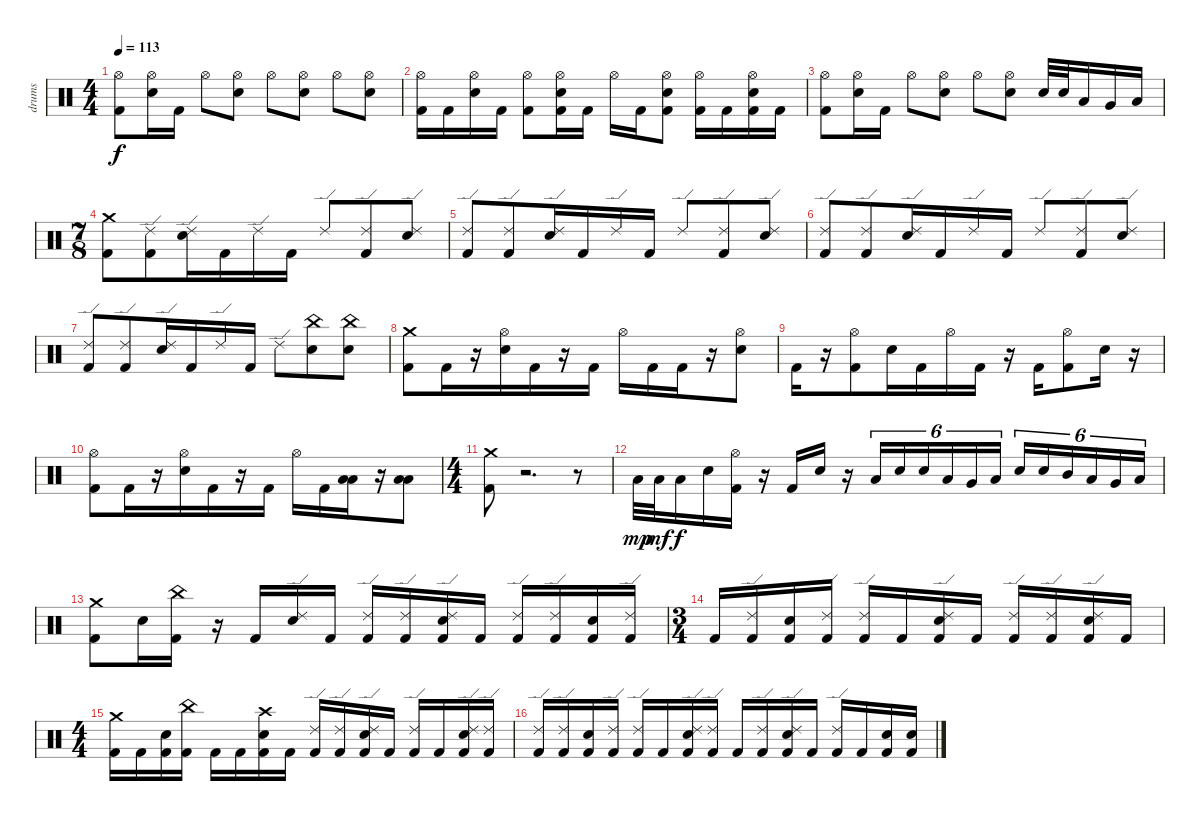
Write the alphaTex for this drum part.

\track ("drums" "drums") {instrument percussion}
\staff {score}
\articulation defaults
\ts (4 4)
\tempo 113
\clef neutral
\ks c
("Hi-Hat (open)" "Kick (hit) 2").8{dy f} ("Hi-Hat (open)" "Electric Snare (hit)").16 "Kick (hit) 2".16 "Hi-Hat (open)".8 ("Hi-Hat (open)" "Electric Snare (hit)").8 "Hi-Hat (open)".8 ("Hi-Hat (open)" "Electric Snare (hit)").8 "Hi-Hat (open)".8 ("Hi-Hat (open)" "Electric Snare (hit)").8 |
("Hi-Hat (open)" "Kick (hit) 2").16 "Kick (hit) 2".16 ("Hi-Hat (open)" "Electric Snare (hit)").16 "Kick (hit) 2".16 ("Hi-Hat (open)" "Kick (hit) 2").8 ("Hi-Hat (open)" "Electric Snare (hit)" "Kick (hit) 2").16 "Kick (hit) 2".16 "Hi-Hat (open)".16 "Kick (hit) 2".16 ("Hi-Hat (open)" "Electric Snare (hit)" "Kick (hit) 2").8 ("Hi-Hat (open)" "Kick (hit) 2").16 "Kick (hit) 2".16 ("Hi-Hat (open)" "Electric Snare (hit)" "Kick (hit) 2").16 "Kick (hit) 2".16 |
("Hi-Hat (open)" "Kick (hit) 2").8 ("Hi-Hat (open)" "Electric Snare (hit)").16 "Kick (hit) 2".16 "Hi-Hat (open)".8 ("Hi-Hat (open)" "Electric Snare (hit)").8 "Hi-Hat (open)".8 ("Hi-Hat (open)" "Electric Snare (hit)").8 "Electric Snare (hit)".32 "Electric Snare (hit)".32 "Low Tom (hit)".16 "Very Low Tom (hit)".16 "Low Floor Tom (hit)".16 |
\ts (7 8)
("Kick (hit) 2" "Crash medium (hit)").8 ("Kick (hit) 2" "Ride (edge) 2").8 ("Electric Snare (hit)" "Ride (edge) 2").16 "Kick (hit) 2".16 "Ride (edge) 2".16 "Kick (hit) 2".16 "Ride (edge) 2".8 ("Kick (hit) 2" "Ride (edge) 2").8 ("Electric Snare (hit)" "Ride (edge) 2").8 |
("Ride (edge) 2" "Kick (hit) 2").8 ("Kick (hit) 2" "Ride (edge) 2").8 ("Electric Snare (hit)" "Ride (edge) 2").16 "Kick (hit) 2".16 "Ride (edge) 2".16 "Kick (hit) 2".16 "Ride (edge) 2".8 ("Kick (hit) 2" "Ride (edge) 2").8 ("Electric Snare (hit)" "Ride (edge) 2").8 |
("Ride (edge) 2" "Kick (hit) 2").8 ("Kick (hit) 2" "Ride (edge) 2").8 ("Electric Snare (hit)" "Ride (edge) 2").16 "Kick (hit) 2".16 "Ride (edge) 2".16 "Kick (hit) 2".16 "Ride (edge) 2".8 ("Kick (hit) 2" "Ride (edge) 2").8 ("Electric Snare (hit)" "Ride (edge) 2").8 |
("Ride (edge) 2" "Kick (hit) 2").8 ("Kick (hit) 2" "Ride (edge) 2").8 ("Electric Snare (hit)" "Ride (edge) 2").16 "Kick (hit) 2".16 "Ride (edge) 2".16 "Kick (hit) 2".16 "Ride (edge) 2".8 ("China (hit)" "Electric Snare (hit)").8 ("China (hit)" "Electric Snare (hit)").8 |
("Crash medium (hit)" "Kick (hit) 2").8 "Kick (hit) 2".16 r.16 ("Hi-Hat (open)" "Electric Snare (hit)").16 "Kick (hit) 2".16 r.16 "Kick (hit) 2".16 "Hi-Hat (open)".16 "Kick (hit) 2".16 "Kick (hit) 2".16 r.16 ("Hi-Hat (open)" "Electric Snare (hit)").8 |
"Kick (hit) 2".16 r.16 ("Hi-Hat (open)" "Kick (hit) 2").8 "Electric Snare (hit)".16 "Kick (hit) 2".16 "Hi-Hat (open)".16 "Kick (hit) 2".16 r.16 "Kick (hit) 2".16 ("Hi-Hat (open)" "Kick (hit) 2").8 "Electric Snare (hit)".16 r.16 |
("Hi-Hat (open)" "Kick (hit) 2").8 "Kick (hit) 2".16 r.16 ("Hi-Hat (open)" "Electric Snare (hit)").16 "Kick (hit) 2".16 r.16 "Kick (hit) 2".16 "Hi-Hat (open)".16 "Kick (hit) 2".16 ("Low Tom (hit)" "Low Floor Tom (hit)").16 r.16 ("Low Floor Tom (hit)" "Low Tom (hit)").8 |
\ts (4 4)
("Crash medium (hit)" "Kick (hit) 2").8 r.2{d} r.8 |
"Low Tom (hit)".32{dy mp} "Low Tom (hit)".32{dy mf} "Low Floor Tom (hit)".16{dy f} "Electric Snare (hit)".16 ("Hi-Hat (open)" "Kick (hit) 2").16 r.16 "Kick (hit) 2".16 "Electric Snare (hit)".16 r.16 "Low Floor Tom (hit)".16{tu (6 4)} "Electric Snare (hit)".16{tu (6 4)} "Electric Snare (hit)".16{tu (6 4)} "Low Tom (hit)".16{tu (6 4)} "Very Low Tom (hit)".16{tu (6 4)} "Low Floor Tom (hit)".16{tu (6 4)} "Electric Snare (hit)".16{tu (6 4)} "Electric Snare (hit)".16{tu (6 4)} "Mid Tom (hit)".16{tu (6 4)} "Low Tom (hit)".16{tu (6 4)} "Very Low Tom (hit)".16{tu (6 4)} "Low Floor Tom (hit)".16{tu (6 4)} |
("Crash medium (hit)" "Kick (hit) 2").8 "Electric Snare (hit)".16 ("China (hit)" "Kick (hit) 2").16 r.16 "Kick (hit) 2".16 ("Ride (edge) 2" "Electric Snare (hit)").16 "Kick (hit) 2".16 ("Ride (edge) 2" "Kick (hit) 2").16 ("Ride (edge) 2" "Kick (hit) 2").16 ("Ride (edge) 2" "Kick (hit) 2" "Electric Snare (hit)").16 "Kick (hit) 2".16 ("Ride (edge) 2" "Kick (hit) 2").16 ("Ride (edge) 2" "Kick (hit) 2").16 ("Electric Snare (hit)" "Kick (hit) 2").16 ("Ride (edge) 2" "Kick (hit) 2").16 |
\ts (3 4)
"Kick (hit) 2".16 ("Ride (edge) 2" "Kick (hit) 2").16 ("Electric Snare (hit)" "Kick (hit) 2").16 ("Ride (edge) 2" "Kick (hit) 2").16 ("Ride (edge) 2" "Kick (hit) 2").16 "Kick (hit) 2".16 ("Ride (edge) 2" "Electric Snare (hit)" "Kick (hit) 2").16 "Kick (hit) 2".16 ("Ride (edge) 2" "Kick (hit) 2").16 ("Ride (edge) 2" "Kick (hit) 2").16 ("Ride (edge) 2" "Electric Snare (hit)" "Kick (hit) 2").16 "Kick (hit) 2".16 |
\ts (4 4)
("Crash medium (hit)" "Kick (hit) 2").16 "Kick (hit) 2".16 ("Electric Snare (hit)" "Kick (hit) 2").16 ("China (hit)" "Kick (hit) 2").16 "Kick (hit) 2".16 "Kick (hit) 2".16 ("Crash high (hit)" "Electric Snare (hit)" "Kick (hit) 2").16 "Kick (hit) 2".16 ("Ride (edge) 2" "Kick (hit) 2").16 ("Ride (edge) 2" "Kick (hit) 2").16 ("Ride (edge) 2" "Electric Snare (hit)" "Kick (hit) 2").16 "Kick (hit) 2".16 ("Ride (edge) 2" "Kick (hit) 2").16 "Kick (hit) 2".16 ("Ride (edge) 2" "Electric Snare (hit)" "Kick (hit) 2").16 ("Ride (edge) 2" "Kick (hit) 2").16 |
("Ride (edge) 2" "Kick (hit) 2").16 ("Ride (edge) 2" "Kick (hit) 2").16 ("Electric Snare (hit)" "Kick (hit) 2").16 ("Ride (edge) 2" "Kick (hit) 2").16 ("Ride (edge) 2" "Kick (hit) 2").16 "Kick (hit) 2".16 ("Ride (edge) 2" "Electric Snare (hit)" "Kick (hit) 2").16 ("Ride (edge) 2" "Kick (hit) 2").16 "Kick (hit) 2".16 ("Ride (edge) 2" "Kick (hit) 2").16 ("Ride (edge) 2" "Electric Snare (hit)" "Kick (hit) 2").16 "Kick (hit) 2".16 ("Ride (edge) 2" "Kick (hit) 2").16 "Kick (hit) 2".16 ("Electric Snare (hit)" "Kick (hit) 2").16 ("Electric Snare (hit)" "Kick (hit) 2").16
